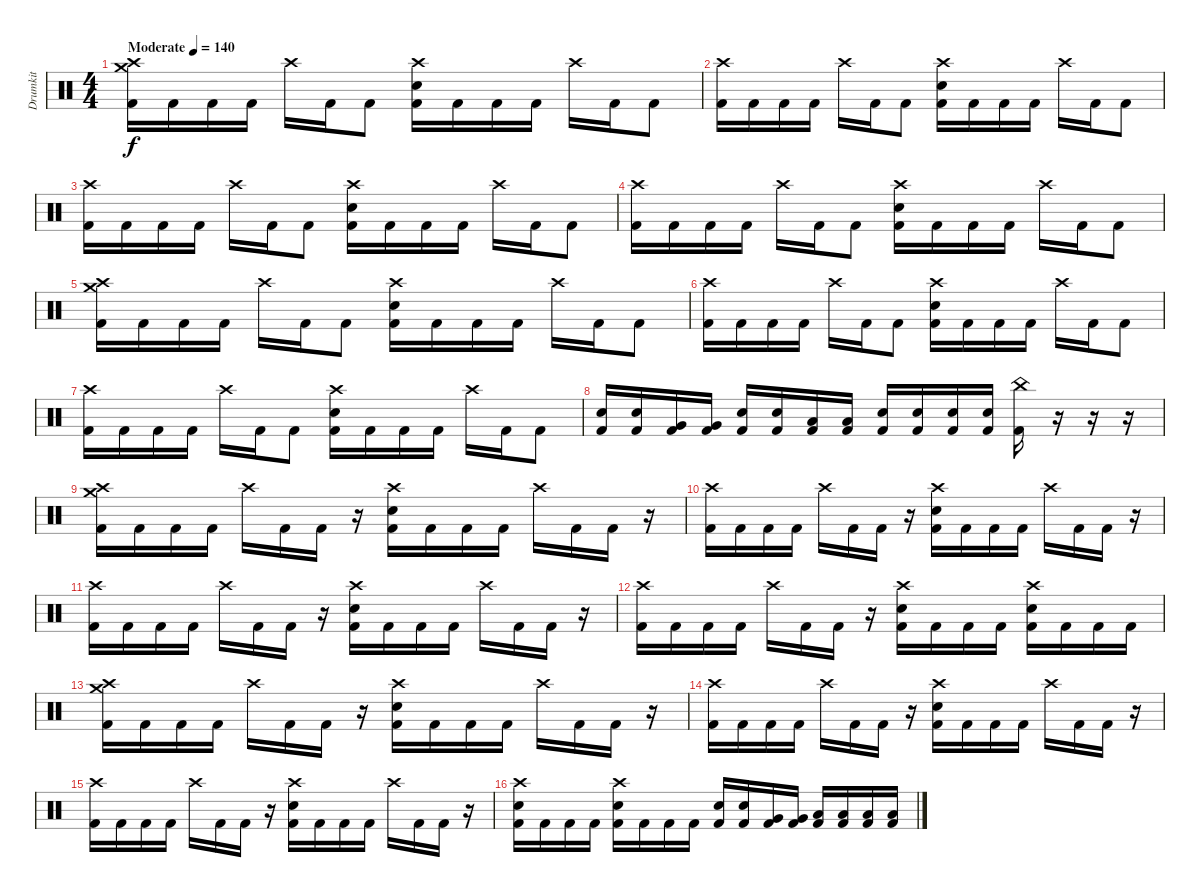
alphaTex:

\track ("Drumkit" "Drumkit") {instrument percussion}
\staff {score}
\articulation defaults
\ts (4 4)
\tempo (140 "Moderate")
\clef neutral
\ks c
("Crash high (hit)" "Crash medium (hit)" "Kick (hit) 2").16{dy f} "Kick (hit) 2".16 "Kick (hit) 2".16 "Kick (hit) 2".16 "Crash high (hit)".16 "Kick (hit) 2".16 "Kick (hit) 2".8 ("Crash high (hit)" "Electric Snare (hit)" "Kick (hit) 2").16 "Kick (hit) 2".16 "Kick (hit) 2".16 "Kick (hit) 2".16 "Crash high (hit)".16 "Kick (hit) 2".16 "Kick (hit) 2".8 |
("Crash high (hit)" "Kick (hit) 2").16 "Kick (hit) 2".16 "Kick (hit) 2".16 "Kick (hit) 2".16 "Crash high (hit)".16 "Kick (hit) 2".16 "Kick (hit) 2".8 ("Crash high (hit)" "Electric Snare (hit)" "Kick (hit) 2").16 "Kick (hit) 2".16 "Kick (hit) 2".16 "Kick (hit) 2".16 "Crash high (hit)".16 "Kick (hit) 2".16 "Kick (hit) 2".8 |
("Crash high (hit)" "Kick (hit) 2").16 "Kick (hit) 2".16 "Kick (hit) 2".16 "Kick (hit) 2".16 "Crash high (hit)".16 "Kick (hit) 2".16 "Kick (hit) 2".8 ("Crash high (hit)" "Electric Snare (hit)" "Kick (hit) 2").16 "Kick (hit) 2".16 "Kick (hit) 2".16 "Kick (hit) 2".16 "Crash high (hit)".16 "Kick (hit) 2".16 "Kick (hit) 2".8 |
("Crash high (hit)" "Kick (hit) 2").16 "Kick (hit) 2".16 "Kick (hit) 2".16 "Kick (hit) 2".16 "Crash high (hit)".16 "Kick (hit) 2".16 "Kick (hit) 2".8 ("Crash high (hit)" "Electric Snare (hit)" "Kick (hit) 2").16 "Kick (hit) 2".16 "Kick (hit) 2".16 "Kick (hit) 2".16 "Crash high (hit)".16 "Kick (hit) 2".16 "Kick (hit) 2".8 |
("Crash high (hit)" "Crash medium (hit)" "Kick (hit) 2").16 "Kick (hit) 2".16 "Kick (hit) 2".16 "Kick (hit) 2".16 "Crash high (hit)".16 "Kick (hit) 2".16 "Kick (hit) 2".8 ("Crash high (hit)" "Electric Snare (hit)" "Kick (hit) 2").16 "Kick (hit) 2".16 "Kick (hit) 2".16 "Kick (hit) 2".16 "Crash high (hit)".16 "Kick (hit) 2".16 "Kick (hit) 2".8 |
("Crash high (hit)" "Kick (hit) 2").16 "Kick (hit) 2".16 "Kick (hit) 2".16 "Kick (hit) 2".16 "Crash high (hit)".16 "Kick (hit) 2".16 "Kick (hit) 2".8 ("Crash high (hit)" "Electric Snare (hit)" "Kick (hit) 2").16 "Kick (hit) 2".16 "Kick (hit) 2".16 "Kick (hit) 2".16 "Crash high (hit)".16 "Kick (hit) 2".16 "Kick (hit) 2".8 |
("Crash high (hit)" "Kick (hit) 2").16 "Kick (hit) 2".16 "Kick (hit) 2".16 "Kick (hit) 2".16 "Crash high (hit)".16 "Kick (hit) 2".16 "Kick (hit) 2".8 ("Crash high (hit)" "Electric Snare (hit)" "Kick (hit) 2").16 "Kick (hit) 2".16 "Kick (hit) 2".16 "Kick (hit) 2".16 "Crash high (hit)".16 "Kick (hit) 2".16 "Kick (hit) 2".8 |
("Electric Snare (hit)" "Kick (hit) 2").16 ("Electric Snare (hit)" "Kick (hit) 2").16 ("Very Low Tom (hit)" "Kick (hit) 2").16 ("Very Low Tom (hit)" "Kick (hit) 2").16 ("Electric Snare (hit)" "Kick (hit) 2").16 ("Electric Snare (hit)" "Kick (hit) 2").16 ("Low Floor Tom (hit)" "Kick (hit) 2").16 ("Low Floor Tom (hit)" "Kick (hit) 2").16 ("Electric Snare (hit)" "Kick (hit) 2").16{volume 9} ("Electric Snare (hit)" "Kick (hit) 2").16 ("Electric Snare (hit)" "Kick (hit) 2").16 ("Electric Snare (hit)" "Kick (hit) 2").16 ("China (hit)" "Kick (hit) 2").16 r.16 r.16 r.16 |
("Crash high (hit)" "Crash medium (hit)" "Kick (hit) 2").16{volume 15} "Kick (hit) 2".16 "Kick (hit) 2".16 "Kick (hit) 2".16 "Crash high (hit)".16 "Kick (hit) 2".16 "Kick (hit) 2".16 r.16 ("Crash high (hit)" "Electric Snare (hit)" "Kick (hit) 2").16 "Kick (hit) 2".16 "Kick (hit) 2".16 "Kick (hit) 2".16 "Crash high (hit)".16 "Kick (hit) 2".16 "Kick (hit) 2".16 r.16 |
("Crash high (hit)" "Kick (hit) 2").16 "Kick (hit) 2".16 "Kick (hit) 2".16 "Kick (hit) 2".16 "Crash high (hit)".16 "Kick (hit) 2".16 "Kick (hit) 2".16 r.16 ("Crash high (hit)" "Electric Snare (hit)" "Kick (hit) 2").16 "Kick (hit) 2".16 "Kick (hit) 2".16 "Kick (hit) 2".16 "Crash high (hit)".16 "Kick (hit) 2".16 "Kick (hit) 2".16 r.16 |
("Crash high (hit)" "Kick (hit) 2").16 "Kick (hit) 2".16 "Kick (hit) 2".16 "Kick (hit) 2".16 "Crash high (hit)".16 "Kick (hit) 2".16 "Kick (hit) 2".16 r.16 ("Crash high (hit)" "Electric Snare (hit)" "Kick (hit) 2").16 "Kick (hit) 2".16 "Kick (hit) 2".16 "Kick (hit) 2".16 "Crash high (hit)".16 "Kick (hit) 2".16 "Kick (hit) 2".16 r.16 |
("Crash high (hit)" "Kick (hit) 2").16 "Kick (hit) 2".16 "Kick (hit) 2".16 "Kick (hit) 2".16 "Crash high (hit)".16 "Kick (hit) 2".16 "Kick (hit) 2".16 r.16 ("Crash high (hit)" "Electric Snare (hit)" "Kick (hit) 2").16 "Kick (hit) 2".16 "Kick (hit) 2".16 "Kick (hit) 2".16 ("Crash high (hit)" "Electric Snare (hit)" "Kick (hit) 2").16 "Kick (hit) 2".16 "Kick (hit) 2".16 "Kick (hit) 2".16 |
("Crash high (hit)" "Crash medium (hit)" "Kick (hit) 2").16 "Kick (hit) 2".16 "Kick (hit) 2".16 "Kick (hit) 2".16 "Crash high (hit)".16 "Kick (hit) 2".16 "Kick (hit) 2".16 r.16 ("Crash high (hit)" "Electric Snare (hit)" "Kick (hit) 2").16 "Kick (hit) 2".16 "Kick (hit) 2".16 "Kick (hit) 2".16 "Crash high (hit)".16 "Kick (hit) 2".16 "Kick (hit) 2".16 r.16 |
("Crash high (hit)" "Kick (hit) 2").16 "Kick (hit) 2".16 "Kick (hit) 2".16 "Kick (hit) 2".16 "Crash high (hit)".16 "Kick (hit) 2".16 "Kick (hit) 2".16 r.16 ("Crash high (hit)" "Electric Snare (hit)" "Kick (hit) 2").16 "Kick (hit) 2".16 "Kick (hit) 2".16 "Kick (hit) 2".16 "Crash high (hit)".16 "Kick (hit) 2".16 "Kick (hit) 2".16 r.16 |
("Crash high (hit)" "Kick (hit) 2").16 "Kick (hit) 2".16 "Kick (hit) 2".16 "Kick (hit) 2".16 "Crash high (hit)".16 "Kick (hit) 2".16 "Kick (hit) 2".16 r.16 ("Crash high (hit)" "Electric Snare (hit)" "Kick (hit) 2").16 "Kick (hit) 2".16 "Kick (hit) 2".16 "Kick (hit) 2".16 "Crash high (hit)".16 "Kick (hit) 2".16 "Kick (hit) 2".16 r.16 |
("Crash high (hit)" "Electric Snare (hit)" "Kick (hit) 2").16 "Kick (hit) 2".16 "Kick (hit) 2".16 "Kick (hit) 2".16 ("Crash high (hit)" "Electric Snare (hit)" "Kick (hit) 2").16 "Kick (hit) 2".16 "Kick (hit) 2".16 "Kick (hit) 2".16 ("Electric Snare (hit)" "Kick (hit) 2").16 ("Electric Snare (hit)" "Kick (hit) 2").16 ("Very Low Tom (hit)" "Kick (hit) 2").16 ("Very Low Tom (hit)" "Kick (hit) 2").16 ("Low Floor Tom (hit)" "Kick (hit) 2").16 ("Low Floor Tom (hit)" "Kick (hit) 2").16 ("Low Floor Tom (hit)" "Kick (hit) 2").16 ("Low Floor Tom (hit)" "Kick (hit) 2").16
